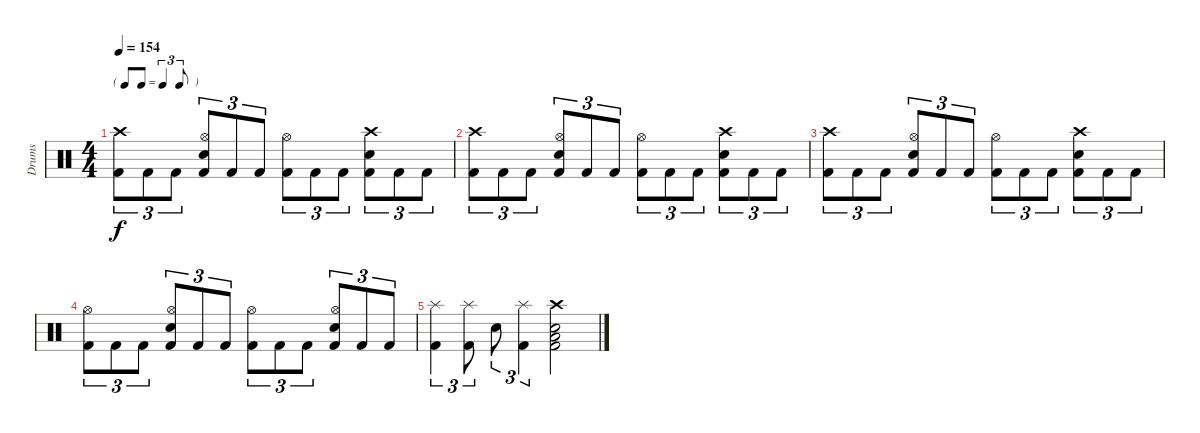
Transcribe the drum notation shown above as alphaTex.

\track ("Drums" "Drums") {instrument percussion}
\staff {score}
\articulation defaults
\ts (4 4)
\tf triplet8th
\tempo 154
\clef neutral
\ks c
("Crash high (hit)" "Kick (hit) 2").8{tu (3 2) dy f} "Kick (hit) 2".8{tu (3 2)} "Kick (hit) 2".8{tu (3 2)} ("Hi-Hat (open)" "Snare (hit) 2" "Kick (hit) 2").8{tu (3 2)} "Kick (hit) 2".8{tu (3 2)} "Kick (hit) 2".8{tu (3 2)} ("Hi-Hat (open)" "Kick (hit) 2").8{tu (3 2)} "Kick (hit) 2".8{tu (3 2)} "Kick (hit) 2".8{tu (3 2)} ("Crash high (hit)" "Snare (hit) 2" "Kick (hit) 2").8{tu (3 2)} "Kick (hit) 2".8{tu (3 2)} "Kick (hit) 2".8{tu (3 2)} |
("Crash high (hit)" "Kick (hit) 2").8{tu (3 2)} "Kick (hit) 2".8{tu (3 2)} "Kick (hit) 2".8{tu (3 2)} ("Hi-Hat (open)" "Snare (hit) 2" "Kick (hit) 2").8{tu (3 2)} "Kick (hit) 2".8{tu (3 2)} "Kick (hit) 2".8{tu (3 2)} ("Hi-Hat (open)" "Kick (hit) 2").8{tu (3 2)} "Kick (hit) 2".8{tu (3 2)} "Kick (hit) 2".8{tu (3 2)} ("Crash high (hit)" "Snare (hit) 2" "Kick (hit) 2").8{tu (3 2)} "Kick (hit) 2".8{tu (3 2)} "Kick (hit) 2".8{tu (3 2)} |
("Crash high (hit)" "Kick (hit) 2").8{tu (3 2)} "Kick (hit) 2".8{tu (3 2)} "Kick (hit) 2".8{tu (3 2)} ("Hi-Hat (open)" "Snare (hit) 2" "Kick (hit) 2").8{tu (3 2)} "Kick (hit) 2".8{tu (3 2)} "Kick (hit) 2".8{tu (3 2)} ("Hi-Hat (open)" "Kick (hit) 2").8{tu (3 2)} "Kick (hit) 2".8{tu (3 2)} "Kick (hit) 2".8{tu (3 2)} ("Crash high (hit)" "Snare (hit) 2" "Kick (hit) 2").8{tu (3 2)} "Kick (hit) 2".8{tu (3 2)} "Kick (hit) 2".8{tu (3 2)} |
("Hi-Hat (open)" "Kick (hit) 2").8{tu (3 2)} "Kick (hit) 2".8{tu (3 2)} "Kick (hit) 2".8{tu (3 2)} ("Hi-Hat (open)" "Snare (hit) 2" "Kick (hit) 2").8{tu (3 2)} "Kick (hit) 2".8{tu (3 2)} "Kick (hit) 2".8{tu (3 2)} ("Hi-Hat (open)" "Kick (hit) 2").8{tu (3 2)} "Kick (hit) 2".8{tu (3 2)} "Kick (hit) 2".8{tu (3 2)} ("Hi-Hat (open)" "Snare (hit) 2" "Kick (hit) 2").8{tu (3 2)} "Kick (hit) 2".8{tu (3 2)} "Kick (hit) 2".8{tu (3 2)} |
("Splash (hit)" "Kick (hit) 2").4{tu (3 2)} ("Splash (hit)" "Kick (hit) 2").8{tu (3 2)} "Snare (hit) 2".8{tu (3 2)} ("Splash (hit)" "Kick (hit) 2").4{tu (3 2)} ("Crash high (hit)" "Snare (hit) 2" "Low Floor Tom (hit)" "Kick (hit) 2").2
